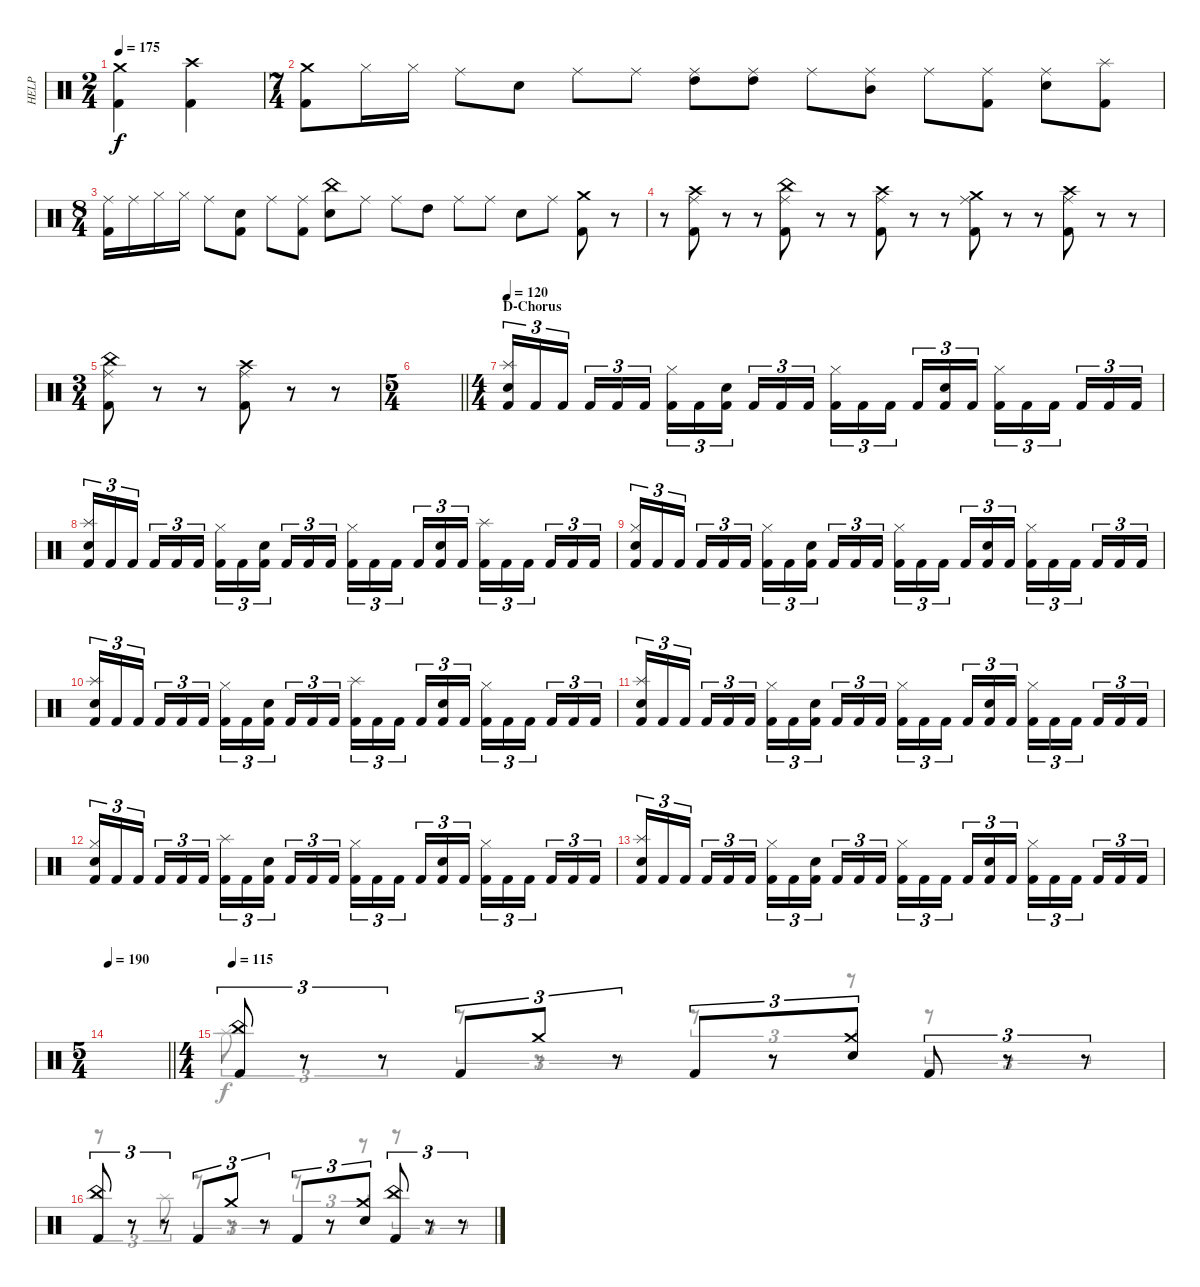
\track ("HELP" "HELP") {instrument percussion}
\staff {score}
\articulation defaults
\voice
\ts (2 4)
\tempo 175
\clef neutral
\ks c
("Crash medium (hit)" "Kick (hit) 2").4{dy f} ("Crash high (hit)" "Kick (hit) 2").4 |
\ts (7 4)
("Crash medium (hit)" "Kick (hit) 2").8 "Hi-Hat (closed)".16 "Hi-Hat (closed)".16 "Ride (middle)".8 "Snare (hit) 2".8 "Ride (middle)".8 "Ride (middle)".8 ("Ride (middle)" "High Tom (hit)").8 ("Ride (middle)" "High Tom (hit)").8 "Ride (middle)".8 ("Ride (middle)" "Mid Tom (hit)").8 "Ride (middle)".8 ("Ride (middle)" "Kick (hit) 2").8 ("Ride (middle)" "Snare (hit) 2").8 ("Splash (hit)" "Kick (hit) 2").8 |
\ts (8 4)
("Ride (middle)" "Kick (hit) 2").16 "Ride (middle)".16 "Hi-Hat (closed)".16 "Hi-Hat (closed)".16 "Ride (middle)".8 ("Snare (hit) 2" "Kick (hit) 2").8 "Ride (middle)".8 ("Ride (middle)" "Kick (hit) 2").8 ("China (hit)" "Snare (hit) 2").8 "Ride (middle)".8 "Ride (middle)".8 "High Tom (hit)".8 "Ride (middle)".8 "Ride (middle)".8 "Snare (hit) 2".8 "Ride (middle)".8 ("Crash medium (hit)" "Kick (hit) 2").8 r.8 |
r.8 ("Crash high (hit)" "Ride (middle)" "Kick (hit) 2").8 r.8 r.8 ("China (hit)" "Ride (middle)" "Kick (hit) 2").8 r.8 r.8 ("Crash high (hit)" "Ride (middle)" "Kick (hit) 2").8 r.8 r.8 ("Crash medium (hit)" "Ride (middle)" "Kick (hit) 2").8 r.8 r.8 ("Crash high (hit)" "Ride (middle)" "Kick (hit) 2").8 r.8 r.8 |
\ts (3 4)
("China (hit)" "Ride (middle)" "Kick (hit) 2").8 r.8 r.8 ("Crash high (hit)" "Ride (middle)" "Kick (hit) 2").8 r.8 r.8 |
\ts (5 4)
\barLineRight lightlight
|
\ts (4 4)
\section ("" "D-Chorus")
\tempo 120
("Splash (hit)" "Electric Snare (hit)" "Kick (hit) 2").16{tu (3 2)} "Kick (hit) 2".16{tu (3 2)} "Kick (hit) 2".16{tu (3 2) beam splitsecondary} "Kick (hit) 2".16{tu (3 2)} "Kick (hit) 2".16{tu (3 2)} "Kick (hit) 2".16{tu (3 2)} ("Hi-Hat (closed)" "Kick (hit) 2").16{tu (3 2)} "Kick (hit) 2".16{tu (3 2)} ("Electric Snare (hit)" "Kick (hit) 2").16{tu (3 2) beam splitsecondary} "Kick (hit) 2".16{tu (3 2)} "Kick (hit) 2".16{tu (3 2)} "Kick (hit) 2".16{tu (3 2)} ("Hi-Hat (closed)" "Kick (hit) 2").16{tu (3 2)} "Kick (hit) 2".16{tu (3 2)} "Kick (hit) 2".16{tu (3 2) beam splitsecondary} "Kick (hit) 2".16{tu (3 2)} ("Electric Snare (hit)" "Kick (hit) 2").16{tu (3 2)} "Kick (hit) 2".16{tu (3 2)} ("Hi-Hat (closed)" "Kick (hit) 2").16{tu (3 2)} "Kick (hit) 2".16{tu (3 2)} "Kick (hit) 2".16{tu (3 2) beam splitsecondary} "Kick (hit) 2".16{tu (3 2)} "Kick (hit) 2".16{tu (3 2)} "Kick (hit) 2".16{tu (3 2)} |
("Splash (hit)" "Electric Snare (hit)" "Kick (hit) 2").16{tu (3 2)} "Kick (hit) 2".16{tu (3 2)} "Kick (hit) 2".16{tu (3 2) beam splitsecondary} "Kick (hit) 2".16{tu (3 2)} "Kick (hit) 2".16{tu (3 2)} "Kick (hit) 2".16{tu (3 2)} ("Hi-Hat (closed)" "Kick (hit) 2").16{tu (3 2)} "Kick (hit) 2".16{tu (3 2)} ("Electric Snare (hit)" "Kick (hit) 2").16{tu (3 2) beam splitsecondary} "Kick (hit) 2".16{tu (3 2)} "Kick (hit) 2".16{tu (3 2)} "Kick (hit) 2".16{tu (3 2)} ("Hi-Hat (closed)" "Kick (hit) 2").16{tu (3 2)} "Kick (hit) 2".16{tu (3 2)} "Kick (hit) 2".16{tu (3 2) beam splitsecondary} "Kick (hit) 2".16{tu (3 2)} ("Electric Snare (hit)" "Kick (hit) 2").16{tu (3 2)} "Kick (hit) 2".16{tu (3 2)} ("Splash (hit)" "Kick (hit) 2").16{tu (3 2)} "Kick (hit) 2".16{tu (3 2)} "Kick (hit) 2".16{tu (3 2) beam splitsecondary} "Kick (hit) 2".16{tu (3 2)} "Kick (hit) 2".16{tu (3 2)} "Kick (hit) 2".16{tu (3 2)} |
("Hi-Hat (closed)" "Electric Snare (hit)" "Kick (hit) 2").16{tu (3 2)} "Kick (hit) 2".16{tu (3 2)} "Kick (hit) 2".16{tu (3 2) beam splitsecondary} "Kick (hit) 2".16{tu (3 2)} "Kick (hit) 2".16{tu (3 2)} "Kick (hit) 2".16{tu (3 2)} ("Hi-Hat (closed)" "Kick (hit) 2").16{tu (3 2)} "Kick (hit) 2".16{tu (3 2)} ("Electric Snare (hit)" "Kick (hit) 2").16{tu (3 2) beam splitsecondary} "Kick (hit) 2".16{tu (3 2)} "Kick (hit) 2".16{tu (3 2)} "Kick (hit) 2".16{tu (3 2)} ("Hi-Hat (closed)" "Kick (hit) 2").16{tu (3 2)} "Kick (hit) 2".16{tu (3 2)} "Kick (hit) 2".16{tu (3 2) beam splitsecondary} "Kick (hit) 2".16{tu (3 2)} ("Electric Snare (hit)" "Kick (hit) 2").16{tu (3 2)} "Kick (hit) 2".16{tu (3 2)} ("Hi-Hat (closed)" "Kick (hit) 2").16{tu (3 2)} "Kick (hit) 2".16{tu (3 2)} "Kick (hit) 2".16{tu (3 2) beam splitsecondary} "Kick (hit) 2".16{tu (3 2)} "Kick (hit) 2".16{tu (3 2)} "Kick (hit) 2".16{tu (3 2)} |
("Splash (hit)" "Electric Snare (hit)" "Kick (hit) 2").16{tu (3 2)} "Kick (hit) 2".16{tu (3 2)} "Kick (hit) 2".16{tu (3 2) beam splitsecondary} "Kick (hit) 2".16{tu (3 2)} "Kick (hit) 2".16{tu (3 2)} "Kick (hit) 2".16{tu (3 2)} ("Hi-Hat (closed)" "Kick (hit) 2").16{tu (3 2)} "Kick (hit) 2".16{tu (3 2)} ("Electric Snare (hit)" "Kick (hit) 2").16{tu (3 2) beam splitsecondary} "Kick (hit) 2".16{tu (3 2)} "Kick (hit) 2".16{tu (3 2)} "Kick (hit) 2".16{tu (3 2)} ("Splash (hit)" "Kick (hit) 2").16{tu (3 2)} "Kick (hit) 2".16{tu (3 2)} "Kick (hit) 2".16{tu (3 2) beam splitsecondary} "Kick (hit) 2".16{tu (3 2)} ("Electric Snare (hit)" "Kick (hit) 2").16{tu (3 2)} "Kick (hit) 2".16{tu (3 2)} ("Hi-Hat (closed)" "Kick (hit) 2").16{tu (3 2)} "Kick (hit) 2".16{tu (3 2)} "Kick (hit) 2".16{tu (3 2) beam splitsecondary} "Kick (hit) 2".16{tu (3 2)} "Kick (hit) 2".16{tu (3 2)} "Kick (hit) 2".16{tu (3 2)} |
("Splash (hit)" "Electric Snare (hit)" "Kick (hit) 2").16{tu (3 2)} "Kick (hit) 2".16{tu (3 2)} "Kick (hit) 2".16{tu (3 2) beam splitsecondary} "Kick (hit) 2".16{tu (3 2)} "Kick (hit) 2".16{tu (3 2)} "Kick (hit) 2".16{tu (3 2)} ("Hi-Hat (closed)" "Kick (hit) 2").16{tu (3 2)} "Kick (hit) 2".16{tu (3 2)} ("Electric Snare (hit)" "Kick (hit) 2").16{tu (3 2) beam splitsecondary} "Kick (hit) 2".16{tu (3 2)} "Kick (hit) 2".16{tu (3 2)} "Kick (hit) 2".16{tu (3 2)} ("Hi-Hat (closed)" "Kick (hit) 2").16{tu (3 2)} "Kick (hit) 2".16{tu (3 2)} "Kick (hit) 2".16{tu (3 2) beam splitsecondary} "Kick (hit) 2".16{tu (3 2)} ("Electric Snare (hit)" "Kick (hit) 2").16{tu (3 2)} "Kick (hit) 2".16{tu (3 2)} ("Hi-Hat (closed)" "Kick (hit) 2").16{tu (3 2)} "Kick (hit) 2".16{tu (3 2)} "Kick (hit) 2".16{tu (3 2) beam splitsecondary} "Kick (hit) 2".16{tu (3 2)} "Kick (hit) 2".16{tu (3 2)} "Kick (hit) 2".16{tu (3 2)} |
("Hi-Hat (closed)" "Electric Snare (hit)" "Kick (hit) 2").16{tu (3 2)} "Kick (hit) 2".16{tu (3 2)} "Kick (hit) 2".16{tu (3 2) beam splitsecondary} "Kick (hit) 2".16{tu (3 2)} "Kick (hit) 2".16{tu (3 2)} "Kick (hit) 2".16{tu (3 2)} ("Splash (hit)" "Kick (hit) 2").16{tu (3 2)} "Kick (hit) 2".16{tu (3 2)} ("Electric Snare (hit)" "Kick (hit) 2").16{tu (3 2) beam splitsecondary} "Kick (hit) 2".16{tu (3 2)} "Kick (hit) 2".16{tu (3 2)} "Kick (hit) 2".16{tu (3 2)} ("Hi-Hat (closed)" "Kick (hit) 2").16{tu (3 2)} "Kick (hit) 2".16{tu (3 2)} "Kick (hit) 2".16{tu (3 2) beam splitsecondary} "Kick (hit) 2".16{tu (3 2)} ("Electric Snare (hit)" "Kick (hit) 2").16{tu (3 2)} "Kick (hit) 2".16{tu (3 2)} ("Hi-Hat (closed)" "Kick (hit) 2").16{tu (3 2)} "Kick (hit) 2".16{tu (3 2)} "Kick (hit) 2".16{tu (3 2) beam splitsecondary} "Kick (hit) 2".16{tu (3 2)} "Kick (hit) 2".16{tu (3 2)} "Kick (hit) 2".16{tu (3 2)} |
("Splash (hit)" "Electric Snare (hit)" "Kick (hit) 2").16{tu (3 2)} "Kick (hit) 2".16{tu (3 2)} "Kick (hit) 2".16{tu (3 2) beam splitsecondary} "Kick (hit) 2".16{tu (3 2)} "Kick (hit) 2".16{tu (3 2)} "Kick (hit) 2".16{tu (3 2)} ("Hi-Hat (closed)" "Kick (hit) 2").16{tu (3 2)} "Kick (hit) 2".16{tu (3 2)} ("Electric Snare (hit)" "Kick (hit) 2").16{tu (3 2) beam splitsecondary} "Kick (hit) 2".16{tu (3 2)} "Kick (hit) 2".16{tu (3 2)} "Kick (hit) 2".16{tu (3 2)} ("Hi-Hat (closed)" "Kick (hit) 2").16{tu (3 2)} "Kick (hit) 2".16{tu (3 2)} "Kick (hit) 2".16{tu (3 2) beam splitsecondary} "Kick (hit) 2".16{tu (3 2)} ("Electric Snare (hit)" "Kick (hit) 2").16{tu (3 2)} "Kick (hit) 2".16{tu (3 2)} ("Hi-Hat (closed)" "Kick (hit) 2").16{tu (3 2)} "Kick (hit) 2".16{tu (3 2)} "Kick (hit) 2".16{tu (3 2) beam splitsecondary} "Kick (hit) 2".16{tu (3 2)} "Kick (hit) 2".16{tu (3 2)} "Kick (hit) 2".16{tu (3 2)} |
\ts (5 4)
\tempo 190
\barLineRight lightlight
|
\ts (4 4)
\tempo 115
("China (hit)" "Kick (hit) 2").8{tu (3 2)} r.8{tu (3 2)} r.8{tu (3 2)} "Kick (hit) 2".8{tu (3 2)} "Crash medium (hit)".8{tu (3 2)} r.8{tu (3 2)} "Kick (hit) 2".8{tu (3 2)} r.8{tu (3 2)} ("Crash medium (hit)" "Electric Snare (hit)").8{tu (3 2)} "Kick (hit) 2".8{tu (3 2)} r.8{tu (3 2)} r.8{tu (3 2)} |
("China (hit)" "Kick (hit) 2").8{tu (3 2)} r.8{tu (3 2)} r.8{tu (3 2)} "Kick (hit) 2".8{tu (3 2)} "Crash medium (hit)".8{tu (3 2)} r.8{tu (3 2)} "Kick (hit) 2".8{tu (3 2)} r.8{tu (3 2)} ("Crash medium (hit)" "Electric Snare (hit)").8{tu (3 2)} ("China (hit)" "Kick (hit) 2").8{tu (3 2)} r.8{tu (3 2)} r.8{tu (3 2)}
\voice
\clef neutral
\ottava regular
\simile none
\ks c
|
|
|
|
|
\barLineRight lightlight
|
|
|
|
|
|
|
|
\barLineRight lightlight
|
"Splash (hit)".8{tu (3 2)} r.8{tu (3 2)} r.8{tu (3 2)} r.8{tu (3 2)} r.8{tu (3 2)} r.8{tu (3 2)} r.8{tu (3 2)} r.8{tu (3 2)} r.8{tu (3 2)} r.8{tu (3 2)} r.8{tu (3 2)} r.8{tu (3 2)} |
r.8{tu (3 2)} r.8{tu (3 2)} "Splash (hit)".8{tu (3 2)} r.8{tu (3 2)} r.8{tu (3 2)} r.8{tu (3 2)} r.8{tu (3 2)} r.8{tu (3 2)} r.8{tu (3 2)} r.8{tu (3 2)} r.8{tu (3 2)} r.8{tu (3 2)}
